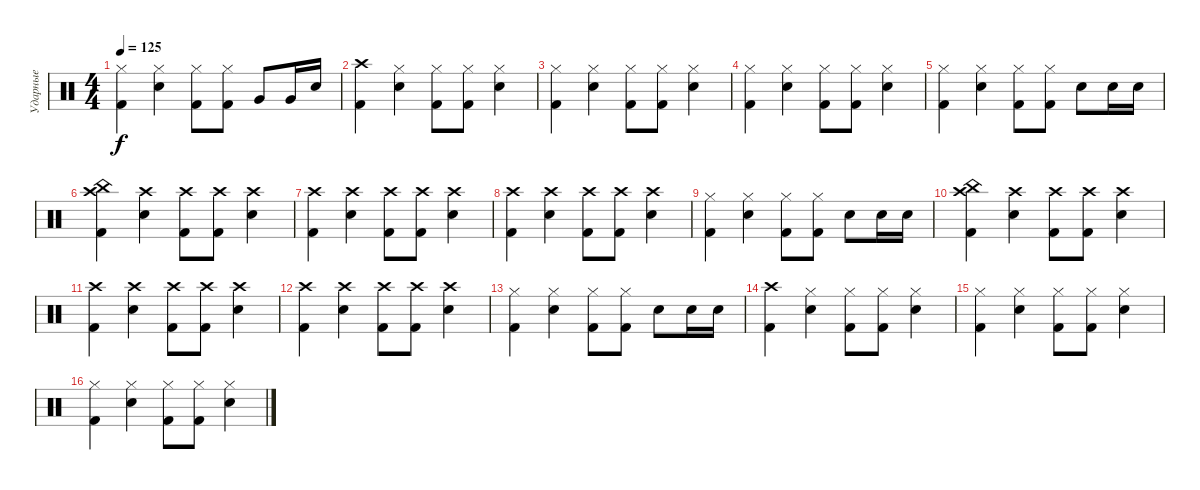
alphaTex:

\track ("Ударные" "Ударные") {instrument percussion}
\staff {score}
\articulation defaults
\ts (4 4)
\tempo 125
\clef neutral
\ks c
("Hi-Hat (closed)" "Kick (hit) 2").4{dy f} ("Hi-Hat (closed)" "Snare (hit) 2").4 ("Hi-Hat (closed)" "Kick (hit) 2").8 ("Hi-Hat (closed)" "Kick (hit) 2").8 "Very Low Tom (hit)".8 "Very Low Tom (hit)".16 "Snare (hit) 2".16 |
("Crash high (hit)" "Kick (hit) 2").4 ("Hi-Hat (closed)" "Snare (hit) 2").4 ("Hi-Hat (closed)" "Kick (hit) 2").8 ("Hi-Hat (closed)" "Kick (hit) 2").8 ("Hi-Hat (closed)" "Snare (hit) 2").4 |
("Hi-Hat (closed)" "Kick (hit) 2").4 ("Hi-Hat (closed)" "Snare (hit) 2").4 ("Hi-Hat (closed)" "Kick (hit) 2").8 ("Hi-Hat (closed)" "Kick (hit) 2").8 ("Hi-Hat (closed)" "Snare (hit) 2").4 |
("Hi-Hat (closed)" "Kick (hit) 2").4 ("Hi-Hat (closed)" "Snare (hit) 2").4 ("Hi-Hat (closed)" "Kick (hit) 2").8 ("Hi-Hat (closed)" "Kick (hit) 2").8 ("Hi-Hat (closed)" "Snare (hit) 2").4 |
("Hi-Hat (closed)" "Kick (hit) 2").4 ("Hi-Hat (closed)" "Snare (hit) 2").4 ("Hi-Hat (closed)" "Kick (hit) 2").8 ("Hi-Hat (closed)" "Kick (hit) 2").8 "Snare (hit) 2".8 "Snare (hit) 2".16 "Snare (hit) 2".16 |
("China (hit)" "Crash high (hit)" "Kick (hit) 2").4 ("Crash high (hit)" "Snare (hit) 2").4 ("Crash high (hit)" "Kick (hit) 2").8 ("Crash high (hit)" "Kick (hit) 2").8 ("Crash high (hit)" "Snare (hit) 2").4 |
("Crash high (hit)" "Kick (hit) 2").4 ("Crash high (hit)" "Snare (hit) 2").4 ("Crash high (hit)" "Kick (hit) 2").8 ("Crash high (hit)" "Kick (hit) 2").8 ("Crash high (hit)" "Snare (hit) 2").4 |
("Crash high (hit)" "Kick (hit) 2").4 ("Crash high (hit)" "Snare (hit) 2").4 ("Crash high (hit)" "Kick (hit) 2").8 ("Crash high (hit)" "Kick (hit) 2").8 ("Crash high (hit)" "Snare (hit) 2").4 |
("Hi-Hat (closed)" "Kick (hit) 2").4 ("Hi-Hat (closed)" "Snare (hit) 2").4 ("Hi-Hat (closed)" "Kick (hit) 2").8 ("Hi-Hat (closed)" "Kick (hit) 2").8 "Snare (hit) 2".8 "Snare (hit) 2".16 "Snare (hit) 2".16 |
("China (hit)" "Crash high (hit)" "Kick (hit) 2").4 ("Crash high (hit)" "Snare (hit) 2").4 ("Crash high (hit)" "Kick (hit) 2").8 ("Crash high (hit)" "Kick (hit) 2").8 ("Crash high (hit)" "Snare (hit) 2").4 |
("Crash high (hit)" "Kick (hit) 2").4 ("Crash high (hit)" "Snare (hit) 2").4 ("Crash high (hit)" "Kick (hit) 2").8 ("Crash high (hit)" "Kick (hit) 2").8 ("Crash high (hit)" "Snare (hit) 2").4 |
("Crash high (hit)" "Kick (hit) 2").4 ("Crash high (hit)" "Snare (hit) 2").4 ("Crash high (hit)" "Kick (hit) 2").8 ("Crash high (hit)" "Kick (hit) 2").8 ("Crash high (hit)" "Snare (hit) 2").4 |
("Hi-Hat (closed)" "Kick (hit) 2").4 ("Hi-Hat (closed)" "Snare (hit) 2").4 ("Hi-Hat (closed)" "Kick (hit) 2").8 ("Hi-Hat (closed)" "Kick (hit) 2").8 "Snare (hit) 2".8 "Snare (hit) 2".16 "Snare (hit) 2".16 |
("Crash high (hit)" "Kick (hit) 2").4 ("Hi-Hat (closed)" "Snare (hit) 2").4 ("Hi-Hat (closed)" "Kick (hit) 2").8 ("Hi-Hat (closed)" "Kick (hit) 2").8 ("Hi-Hat (closed)" "Snare (hit) 2").4 |
("Hi-Hat (closed)" "Kick (hit) 2").4 ("Hi-Hat (closed)" "Snare (hit) 2").4 ("Hi-Hat (closed)" "Kick (hit) 2").8 ("Hi-Hat (closed)" "Kick (hit) 2").8 ("Hi-Hat (closed)" "Snare (hit) 2").4 |
("Hi-Hat (closed)" "Kick (hit) 2").4 ("Hi-Hat (closed)" "Snare (hit) 2").4 ("Hi-Hat (closed)" "Kick (hit) 2").8 ("Hi-Hat (closed)" "Kick (hit) 2").8 ("Hi-Hat (closed)" "Snare (hit) 2").4
